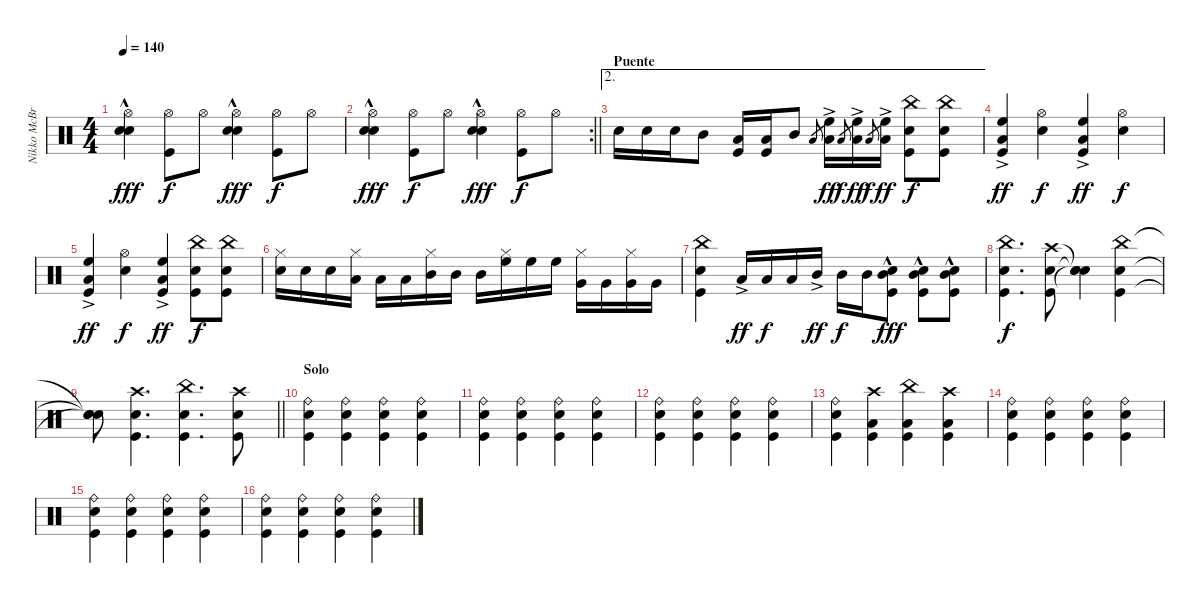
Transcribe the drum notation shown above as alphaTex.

\track ("Nikko McBrain" "Nikko McBr") {instrument percussion}
\staff {score}
\articulation defaults
\ts (4 4)
\tempo 140
\clef neutral
\ks c
("Hi-Hat (open)" "Snare (hit) 2"{hac} "Snare (hit) 2"{hac}).4{dy fff} ("Hi-Hat (open)" "Kick (hit)").8{dy f} "Hi-Hat (open)".8 ("Hi-Hat (open)" "Snare (hit) 2"{hac} "Snare (hit) 2"{hac}).4{dy fff} ("Hi-Hat (open)" "Kick (hit)").8{dy f} "Hi-Hat (open)".8 |
\rc 2
\barLineRight lightlight
("Hi-Hat (open)" "Snare (hit) 2"{hac} "Snare (hit) 2"{hac}).4{dy fff} ("Hi-Hat (open)" "Kick (hit)").8{dy f} "Hi-Hat (open)".8 ("Hi-Hat (open)" "Snare (hit) 2"{hac} "Snare (hit) 2"{hac}).4{dy fff} ("Hi-Hat (open)" "Kick (hit)").8{dy f} "Hi-Hat (open)".8 |
\ae 2
\section ("" "Puente")
"Snare (hit) 2".16 "Snare (hit) 2".16 "Snare (hit) 2".16 "Mid Tom (hit)".8 ("Low Floor Tom (hit)" "Kick (hit)").16 ("Low Floor Tom (hit)" "Kick (hit)").16 "Mid Tom (hit)".8 "Low Floor Tom (hit)".8{gr} ("Low Floor Tom (hit)" "High Floor Tom (hit)"{ac}).16{dy ff} "Low Floor Tom (hit)".8{gr dy f} ("Low Floor Tom (hit)" "High Floor Tom (hit)"{ac}).16{dy ff} "Low Floor Tom (hit)".8{gr dy f} ("Low Floor Tom (hit)" "High Floor Tom (hit)"{ac}).16{dy ff} ("China (hit)" "Kick (hit)" "Snare (hit) 2").8{dy f} ("China (hit)" "Kick (hit)" "Snare (hit) 2").8 |
("Kick (hit)" "High Floor Tom (hit)"{ac} "Low Floor Tom (hit)").4{dy ff} ("Hi-Hat (open)" "Snare (hit) 2").4{dy f} ("Kick (hit)" "High Floor Tom (hit)"{ac} "Low Floor Tom (hit)").4{dy ff} ("Hi-Hat (open)" "Snare (hit) 2").4{dy f} |
("Kick (hit)"{ac} "High Floor Tom (hit)" "Low Floor Tom (hit)").4{dy ff} ("Hi-Hat (open)" "Snare (hit) 2").4{dy f} ("Kick (hit)"{ac} "High Floor Tom (hit)" "Low Floor Tom (hit)").4{dy ff} ("China (hit)" "Kick (hit)" "Snare (hit) 2").8{dy f} ("China (hit)" "Kick (hit)" "Snare (hit) 2").8 |
("Hi-Hat (closed)" "Snare (hit) 2").16 "Snare (hit) 2".16 "Snare (hit) 2".16 ("Hi-Hat (closed)" "Low Floor Tom (hit)").16 "Low Floor Tom (hit)".16 "Low Floor Tom (hit)".16 ("Hi-Hat (closed)" "Mid Tom (hit)").16 "Mid Tom (hit)".16 "Mid Tom (hit)".16 ("Hi-Hat (closed)" "High Floor Tom (hit)").16 "High Floor Tom (hit)".16 "High Floor Tom (hit)".16 ("Hi-Hat (closed)" "Very Low Tom (hit)").16 "Very Low Tom (hit)".16 ("Hi-Hat (closed)" "Very Low Tom (hit)").16 "Very Low Tom (hit)".16 |
("China (hit)" "Kick (hit)" "Snare (hit) 2").4 "Low Floor Tom (hit)"{ac}.16{dy ff} "Low Floor Tom (hit)".16{dy f} "Low Floor Tom (hit)".16 "Mid Tom (hit)"{ac}.16{dy ff} "Mid Tom (hit)".16{dy f} "Mid Tom (hit)".16 ("Mid Tom (hit)"{hac} "Kick (hit)" "Snare (hit) 2").8{dy fff} ("Mid Tom (hit)"{hac} "Kick (hit)" "Snare (hit) 2").8 ("Mid Tom (hit)"{hac} "Kick (hit)" "Snare (hit) 2").8 |
("China (hit)" "Kick (hit)" "Snare (hit) 2").4{d dy f} ("Crash high (hit)" "Kick (hit)" "Snare (hit) 2").8 ("Snare (hit)"{t} "Snare (hit)"{t} "Snare (hit)"{t}).4 ("China (hit)" "Kick (hit)" "Snare (hit) 2").4 |
\barLineRight lightlight
("Snare (hit)"{t} "Snare (hit)"{t} "Snare (hit)"{t}).8 ("Crash high (hit)" "Kick (hit)" "Snare (hit) 2").4{d} ("China (hit)" "Kick (hit)" "Snare (hit) 2").4{d} ("Crash high (hit)" "Kick (hit)" "Snare (hit) 2").8 |
\section ("" "Solo")
("Ride (bell)" "Snare (hit) 2" "Kick (hit)").4 ("Ride (bell)" "Snare (hit) 2" "Kick (hit)").4 ("Ride (bell)" "Snare (hit) 2" "Kick (hit)").4 ("Ride (bell)" "Snare (hit) 2" "Kick (hit)").4 |
("Ride (bell)" "Snare (hit) 2" "Kick (hit)").4 ("Ride (bell)" "Snare (hit) 2" "Kick (hit)").4 ("Ride (bell)" "Snare (hit) 2" "Kick (hit)").4 ("Ride (bell)" "Snare (hit) 2" "Kick (hit)").4 |
("Ride (bell)" "Snare (hit) 2" "Kick (hit)").4 ("Ride (bell)" "Snare (hit) 2" "Kick (hit)").4 ("Ride (bell)" "Snare (hit) 2" "Kick (hit)").4 ("Ride (bell)" "Snare (hit) 2" "Kick (hit)").4 |
("Ride (bell)" "Snare (hit) 2" "Kick (hit)").4 ("Crash high (hit)" "Kick (hit)" "Low Floor Tom (hit)").4 ("China (hit)" "Kick (hit)" "Low Floor Tom (hit)").4 ("Crash high (hit)" "Kick (hit)" "Low Floor Tom (hit)").4 |
("Ride (bell)" "Snare (hit) 2" "Kick (hit)").4 ("Ride (bell)" "Snare (hit) 2" "Kick (hit)").4 ("Ride (bell)" "Snare (hit) 2" "Kick (hit)").4 ("Ride (bell)" "Snare (hit) 2" "Kick (hit)").4 |
("Ride (bell)" "Snare (hit) 2" "Kick (hit)").4 ("Ride (bell)" "Snare (hit) 2" "Kick (hit)").4 ("Ride (bell)" "Snare (hit) 2" "Kick (hit)").4 ("Ride (bell)" "Snare (hit) 2" "Kick (hit)").4 |
("Ride (bell)" "Snare (hit) 2" "Kick (hit)").4 ("Ride (bell)" "Snare (hit) 2" "Kick (hit)").4 ("Ride (bell)" "Snare (hit) 2" "Kick (hit)").4 ("Ride (bell)" "Snare (hit) 2" "Kick (hit)").4
